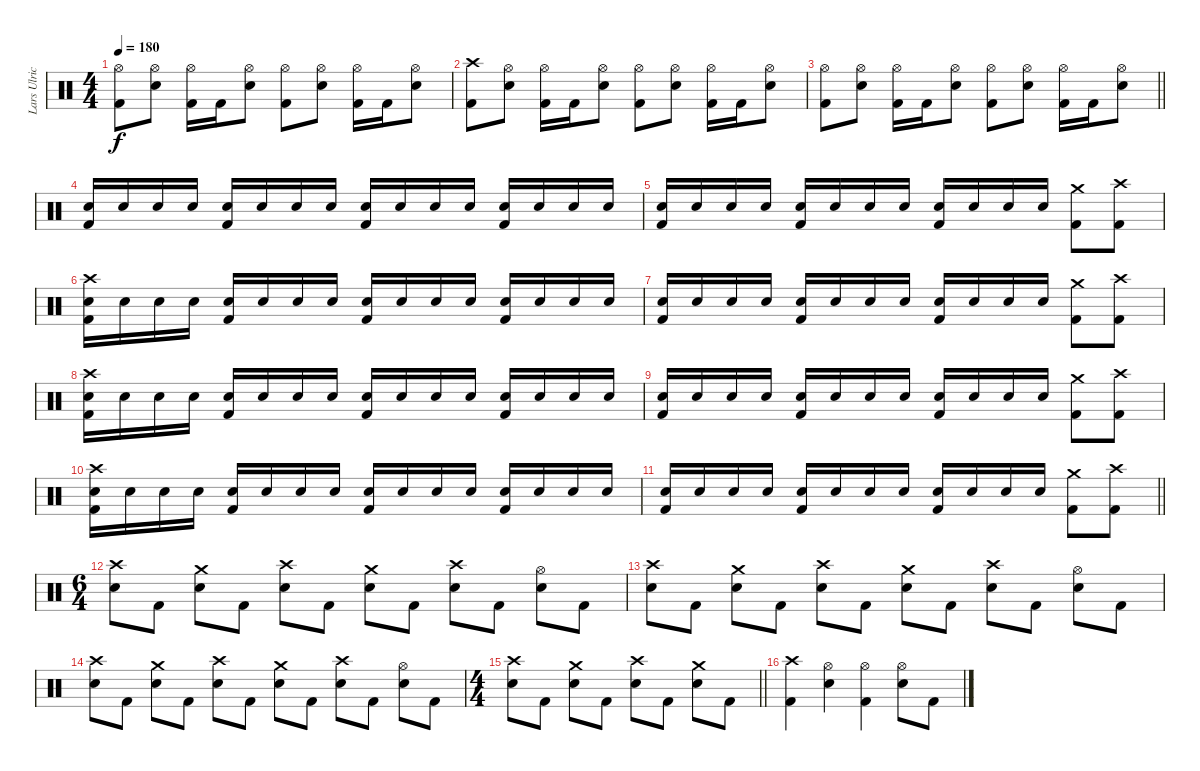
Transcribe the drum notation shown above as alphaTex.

\track ("Lars Ulrich" "Lars Ulric") {instrument percussion}
\staff {score}
\articulation defaults
\ts (4 4)
\tempo 180
\clef neutral
\ks c
("Hi-Hat (open)" "Kick (hit) 2").8{dy f} ("Hi-Hat (open)" "Electric Snare (hit)").8 ("Hi-Hat (open)" "Kick (hit) 2").16 "Kick (hit) 2".16 ("Hi-Hat (open)" "Electric Snare (hit)").8 ("Hi-Hat (open)" "Kick (hit) 2").8 ("Hi-Hat (open)" "Electric Snare (hit)").8 ("Hi-Hat (open)" "Kick (hit) 2").16 "Kick (hit) 2".16 ("Hi-Hat (open)" "Electric Snare (hit)").8 |
("Crash high (hit)" "Kick (hit) 2").8 ("Hi-Hat (open)" "Electric Snare (hit)").8 ("Hi-Hat (open)" "Kick (hit) 2").16 "Kick (hit) 2".16 ("Hi-Hat (open)" "Electric Snare (hit)").8 ("Hi-Hat (open)" "Kick (hit) 2").8 ("Hi-Hat (open)" "Electric Snare (hit)").8 ("Hi-Hat (open)" "Kick (hit) 2").16 "Kick (hit) 2".16 ("Hi-Hat (open)" "Electric Snare (hit)").8 |
\barLineRight lightlight
("Hi-Hat (open)" "Kick (hit) 2").8 ("Hi-Hat (open)" "Electric Snare (hit)").8 ("Hi-Hat (open)" "Kick (hit) 2").16 "Kick (hit) 2".16 ("Hi-Hat (open)" "Electric Snare (hit)").8 ("Hi-Hat (open)" "Kick (hit) 2").8 ("Hi-Hat (open)" "Electric Snare (hit)").8 ("Hi-Hat (open)" "Kick (hit) 2").16 "Kick (hit) 2".16 ("Hi-Hat (open)" "Electric Snare (hit)").8 |
\section ("" "")
("Electric Snare (hit)" "Kick (hit) 2").16 "Electric Snare (hit)".16 "Electric Snare (hit)".16 "Electric Snare (hit)".16 ("Electric Snare (hit)" "Kick (hit) 2").16 "Electric Snare (hit)".16 "Electric Snare (hit)".16 "Electric Snare (hit)".16 ("Electric Snare (hit)" "Kick (hit) 2").16 "Electric Snare (hit)".16 "Electric Snare (hit)".16 "Electric Snare (hit)".16 ("Electric Snare (hit)" "Kick (hit) 2").16 "Electric Snare (hit)".16 "Electric Snare (hit)".16 "Electric Snare (hit)".16 |
("Electric Snare (hit)" "Kick (hit) 2").16 "Electric Snare (hit)".16 "Electric Snare (hit)".16 "Electric Snare (hit)".16 ("Electric Snare (hit)" "Kick (hit) 2").16 "Electric Snare (hit)".16 "Electric Snare (hit)".16 "Electric Snare (hit)".16 ("Electric Snare (hit)" "Kick (hit) 2").16 "Electric Snare (hit)".16 "Electric Snare (hit)".16 "Electric Snare (hit)".16 ("Crash medium (hit)" "Kick (hit) 2").8 ("Crash high (hit)" "Kick (hit) 2").8 |
("Crash high (hit)" "Electric Snare (hit)" "Kick (hit) 2").16 "Electric Snare (hit)".16 "Electric Snare (hit)".16 "Electric Snare (hit)".16 ("Electric Snare (hit)" "Kick (hit) 2").16 "Electric Snare (hit)".16 "Electric Snare (hit)".16 "Electric Snare (hit)".16 ("Electric Snare (hit)" "Kick (hit) 2").16 "Electric Snare (hit)".16 "Electric Snare (hit)".16 "Electric Snare (hit)".16 ("Electric Snare (hit)" "Kick (hit) 2").16 "Electric Snare (hit)".16 "Electric Snare (hit)".16 "Electric Snare (hit)".16 |
("Electric Snare (hit)" "Kick (hit) 2").16 "Electric Snare (hit)".16 "Electric Snare (hit)".16 "Electric Snare (hit)".16 ("Electric Snare (hit)" "Kick (hit) 2").16 "Electric Snare (hit)".16 "Electric Snare (hit)".16 "Electric Snare (hit)".16 ("Electric Snare (hit)" "Kick (hit) 2").16 "Electric Snare (hit)".16 "Electric Snare (hit)".16 "Electric Snare (hit)".16 ("Crash medium (hit)" "Kick (hit) 2").8 ("Crash high (hit)" "Kick (hit) 2").8 |
("Crash high (hit)" "Electric Snare (hit)" "Kick (hit) 2").16 "Electric Snare (hit)".16 "Electric Snare (hit)".16 "Electric Snare (hit)".16 ("Electric Snare (hit)" "Kick (hit) 2").16 "Electric Snare (hit)".16 "Electric Snare (hit)".16 "Electric Snare (hit)".16 ("Electric Snare (hit)" "Kick (hit) 2").16 "Electric Snare (hit)".16 "Electric Snare (hit)".16 "Electric Snare (hit)".16 ("Electric Snare (hit)" "Kick (hit) 2").16 "Electric Snare (hit)".16 "Electric Snare (hit)".16 "Electric Snare (hit)".16 |
("Electric Snare (hit)" "Kick (hit) 2").16 "Electric Snare (hit)".16 "Electric Snare (hit)".16 "Electric Snare (hit)".16 ("Electric Snare (hit)" "Kick (hit) 2").16 "Electric Snare (hit)".16 "Electric Snare (hit)".16 "Electric Snare (hit)".16 ("Electric Snare (hit)" "Kick (hit) 2").16 "Electric Snare (hit)".16 "Electric Snare (hit)".16 "Electric Snare (hit)".16 ("Crash medium (hit)" "Kick (hit) 2").8 ("Crash high (hit)" "Kick (hit) 2").8 |
("Crash high (hit)" "Electric Snare (hit)" "Kick (hit) 2").16 "Electric Snare (hit)".16 "Electric Snare (hit)".16 "Electric Snare (hit)".16 ("Electric Snare (hit)" "Kick (hit) 2").16 "Electric Snare (hit)".16 "Electric Snare (hit)".16 "Electric Snare (hit)".16 ("Electric Snare (hit)" "Kick (hit) 2").16 "Electric Snare (hit)".16 "Electric Snare (hit)".16 "Electric Snare (hit)".16 ("Electric Snare (hit)" "Kick (hit) 2").16 "Electric Snare (hit)".16 "Electric Snare (hit)".16 "Electric Snare (hit)".16 |
\barLineRight lightlight
("Electric Snare (hit)" "Kick (hit) 2").16 "Electric Snare (hit)".16 "Electric Snare (hit)".16 "Electric Snare (hit)".16 ("Electric Snare (hit)" "Kick (hit) 2").16 "Electric Snare (hit)".16 "Electric Snare (hit)".16 "Electric Snare (hit)".16 ("Electric Snare (hit)" "Kick (hit) 2").16 "Electric Snare (hit)".16 "Electric Snare (hit)".16 "Electric Snare (hit)".16 ("Crash medium (hit)" "Kick (hit) 2").8 ("Crash high (hit)" "Kick (hit) 2").8 |
\ts (6 4)
\section ("" "")
("Crash high (hit)" "Electric Snare (hit)").8 "Kick (hit) 2".8 ("Crash medium (hit)" "Electric Snare (hit)").8 "Kick (hit) 2".8 ("Crash high (hit)" "Electric Snare (hit)").8 "Kick (hit) 2".8 ("Crash medium (hit)" "Electric Snare (hit)").8 "Kick (hit) 2".8 ("Crash high (hit)" "Electric Snare (hit)").8 "Kick (hit) 2".8 ("Hi-Hat (open)" "Electric Snare (hit)").8 "Kick (hit) 2".8 |
("Crash high (hit)" "Electric Snare (hit)").8 "Kick (hit) 2".8 ("Crash medium (hit)" "Electric Snare (hit)").8 "Kick (hit) 2".8 ("Crash high (hit)" "Electric Snare (hit)").8 "Kick (hit) 2".8 ("Crash medium (hit)" "Electric Snare (hit)").8 "Kick (hit) 2".8 ("Crash high (hit)" "Electric Snare (hit)").8 "Kick (hit) 2".8 ("Hi-Hat (open)" "Electric Snare (hit)").8 "Kick (hit) 2".8 |
("Crash high (hit)" "Electric Snare (hit)").8 "Kick (hit) 2".8 ("Crash medium (hit)" "Electric Snare (hit)").8 "Kick (hit) 2".8 ("Crash high (hit)" "Electric Snare (hit)").8 "Kick (hit) 2".8 ("Crash medium (hit)" "Electric Snare (hit)").8 "Kick (hit) 2".8 ("Crash high (hit)" "Electric Snare (hit)").8 "Kick (hit) 2".8 ("Hi-Hat (open)" "Electric Snare (hit)").8 "Kick (hit) 2".8 |
\ts (4 4)
\barLineRight lightlight
("Crash high (hit)" "Electric Snare (hit)").8 "Kick (hit) 2".8 ("Crash medium (hit)" "Electric Snare (hit)").8 "Kick (hit) 2".8 ("Crash high (hit)" "Electric Snare (hit)").8 "Kick (hit) 2".8 ("Crash medium (hit)" "Electric Snare (hit)").8 "Kick (hit) 2".8 |
\section ("" "")
("Crash high (hit)" "Kick (hit) 2").4 ("Hi-Hat (open)" "Electric Snare (hit)").4 ("Hi-Hat (open)" "Kick (hit) 2").4 ("Hi-Hat (open)" "Electric Snare (hit)").8 "Kick (hit) 2".8
